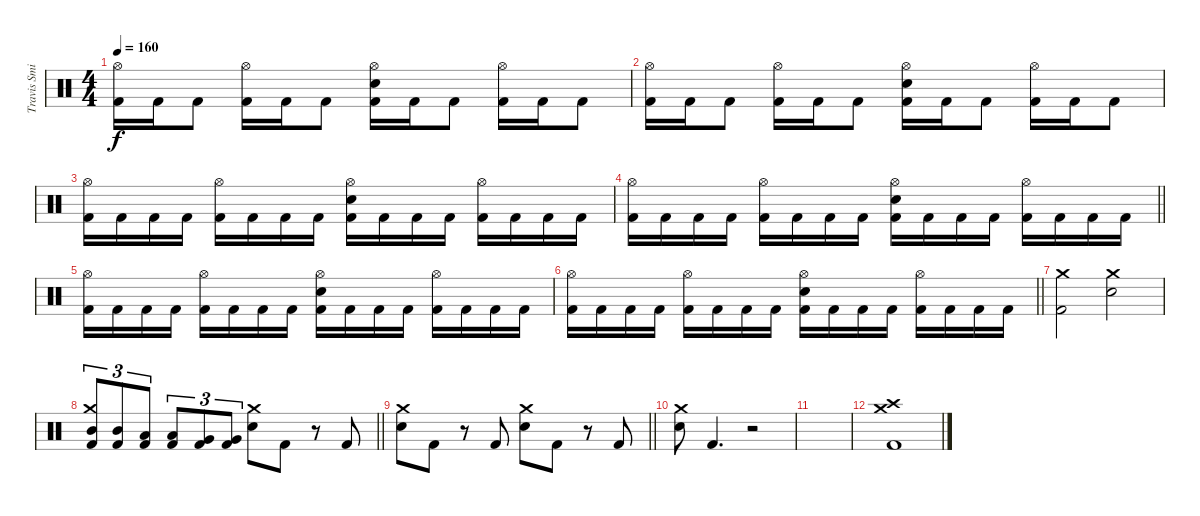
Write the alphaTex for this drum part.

\track ("Travis Smith" "Travis Smi") {instrument percussion}
\staff {score}
\articulation defaults
\ts (4 4)
\tempo 160
\clef neutral
\ks c
("Hi-Hat (open)" "Kick (hit) 2").16{dy f} "Kick (hit) 2".16 "Kick (hit) 2".8 ("Hi-Hat (open)" "Kick (hit) 2").16 "Kick (hit) 2".16 "Kick (hit) 2".8 ("Hi-Hat (open)" "Electric Snare (hit)" "Kick (hit) 2").16 "Kick (hit) 2".16 "Kick (hit) 2".8 ("Hi-Hat (open)" "Kick (hit) 2").16 "Kick (hit) 2".16 "Kick (hit) 2".8 |
("Hi-Hat (open)" "Kick (hit) 2").16 "Kick (hit) 2".16 "Kick (hit) 2".8 ("Hi-Hat (open)" "Kick (hit) 2").16 "Kick (hit) 2".16 "Kick (hit) 2".8 ("Hi-Hat (open)" "Electric Snare (hit)" "Kick (hit) 2").16 "Kick (hit) 2".16 "Kick (hit) 2".8 ("Hi-Hat (open)" "Kick (hit) 2").16 "Kick (hit) 2".16 "Kick (hit) 2".8 |
("Hi-Hat (open)" "Kick (hit) 2").16 "Kick (hit) 2".16 "Kick (hit) 2".16 "Kick (hit) 2".16 ("Hi-Hat (open)" "Kick (hit) 2").16 "Kick (hit) 2".16 "Kick (hit) 2".16 "Kick (hit) 2".16 ("Hi-Hat (open)" "Electric Snare (hit)" "Kick (hit) 2").16 "Kick (hit) 2".16 "Kick (hit) 2".16 "Kick (hit) 2".16 ("Hi-Hat (open)" "Kick (hit) 2").16 "Kick (hit) 2".16 "Kick (hit) 2".16 "Kick (hit) 2".16 |
\barLineRight lightlight
("Hi-Hat (open)" "Kick (hit) 2").16 "Kick (hit) 2".16 "Kick (hit) 2".16 "Kick (hit) 2".16 ("Hi-Hat (open)" "Kick (hit) 2").16 "Kick (hit) 2".16 "Kick (hit) 2".16 "Kick (hit) 2".16 ("Hi-Hat (open)" "Electric Snare (hit)" "Kick (hit) 2").16 "Kick (hit) 2".16 "Kick (hit) 2".16 "Kick (hit) 2".16 ("Hi-Hat (open)" "Kick (hit) 2").16 "Kick (hit) 2".16 "Kick (hit) 2".16 "Kick (hit) 2".16 |
("Hi-Hat (open)" "Kick (hit) 2").16 "Kick (hit) 2".16 "Kick (hit) 2".16 "Kick (hit) 2".16 ("Hi-Hat (open)" "Kick (hit) 2").16 "Kick (hit) 2".16 "Kick (hit) 2".16 "Kick (hit) 2".16 ("Hi-Hat (open)" "Electric Snare (hit)" "Kick (hit) 2").16 "Kick (hit) 2".16 "Kick (hit) 2".16 "Kick (hit) 2".16 ("Hi-Hat (open)" "Kick (hit) 2").16 "Kick (hit) 2".16 "Kick (hit) 2".16 "Kick (hit) 2".16 |
\barLineRight lightlight
("Hi-Hat (open)" "Kick (hit) 2").16 "Kick (hit) 2".16 "Kick (hit) 2".16 "Kick (hit) 2".16 ("Hi-Hat (open)" "Kick (hit) 2").16 "Kick (hit) 2".16 "Kick (hit) 2".16 "Kick (hit) 2".16 ("Hi-Hat (open)" "Electric Snare (hit)" "Kick (hit) 2").16 "Kick (hit) 2".16 "Kick (hit) 2".16 "Kick (hit) 2".16 ("Hi-Hat (open)" "Kick (hit) 2").16 "Kick (hit) 2".16 "Kick (hit) 2".16 "Kick (hit) 2".16 |
("Crash medium (hit)" "Kick (hit) 2").2 ("Crash medium (hit)" "Electric Snare (hit)").2 |
\barLineRight lightlight
("Crash medium (hit)" "Mid Tom (hit)" "Kick (hit) 2").8{tu (3 2)} ("Mid Tom (hit)" "Kick (hit) 2").8{tu (3 2)} ("Low Tom (hit)" "Kick (hit) 2").8{tu (3 2)} ("Low Tom (hit)" "Kick (hit) 2").8{tu (3 2)} ("Very Low Tom (hit)" "Kick (hit) 2").8{tu (3 2)} ("Very Low Tom (hit)" "Kick (hit) 2").8{tu (3 2)} ("Crash medium (hit)" "Electric Snare (hit)").8 "Kick (hit) 2".8 r.8 "Kick (hit) 2".8 |
\barLineRight lightlight
("Crash medium (hit)" "Electric Snare (hit)").8 "Kick (hit) 2".8 r.8 "Kick (hit) 2".8 ("Crash medium (hit)" "Electric Snare (hit)").8 "Kick (hit) 2".8 r.8 "Kick (hit) 2".8 |
("Crash medium (hit)" "Electric Snare (hit)").8 "Kick (hit) 2".4{d} r.2 |
|
("Crash medium (hit)" "Crash high (hit)" "Kick (hit) 2").1
